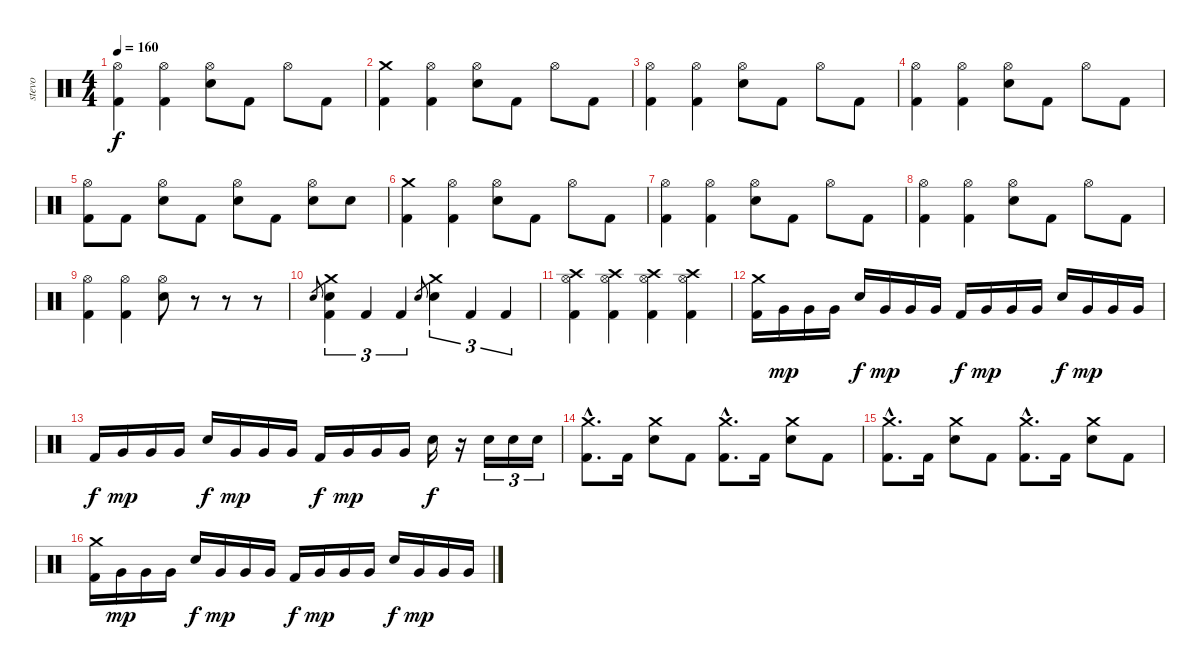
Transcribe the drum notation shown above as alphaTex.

\track ("stevo" "stevo") {instrument percussion}
\staff {score}
\articulation defaults
\ts (4 4)
\tempo 160
\clef neutral
\ks c
("Hi-Hat (open)" "Kick (hit) 2").4{dy f} ("Hi-Hat (open)" "Kick (hit) 2").4 ("Electric Snare (hit)" "Hi-Hat (open)").8 "Kick (hit) 2".8 "Hi-Hat (open)".8 "Kick (hit) 2".8 |
("Crash medium (hit)" "Kick (hit) 2").4 ("Hi-Hat (open)" "Kick (hit) 2").4 ("Electric Snare (hit)" "Hi-Hat (open)").8 "Kick (hit) 2".8 "Hi-Hat (open)".8 "Kick (hit) 2".8 |
("Hi-Hat (open)" "Kick (hit) 2").4 ("Hi-Hat (open)" "Kick (hit) 2").4 ("Electric Snare (hit)" "Hi-Hat (open)").8 "Kick (hit) 2".8 "Hi-Hat (open)".8 "Kick (hit) 2".8 |
("Hi-Hat (open)" "Kick (hit) 2").4 ("Hi-Hat (open)" "Kick (hit) 2").4 ("Electric Snare (hit)" "Hi-Hat (open)").8 "Kick (hit) 2".8 "Hi-Hat (open)".8 "Kick (hit) 2".8 |
("Hi-Hat (open)" "Kick (hit) 2").8 "Kick (hit) 2".8 ("Hi-Hat (open)" "Electric Snare (hit)").8 "Kick (hit) 2".8 ("Hi-Hat (open)" "Electric Snare (hit)").8 "Kick (hit) 2".8 ("Hi-Hat (open)" "Electric Snare (hit)").8 "Electric Snare (hit)".8 |
("Crash medium (hit)" "Kick (hit) 2").4 ("Hi-Hat (open)" "Kick (hit) 2").4 ("Electric Snare (hit)" "Hi-Hat (open)").8 "Kick (hit) 2".8 "Hi-Hat (open)".8 "Kick (hit) 2".8 |
("Hi-Hat (open)" "Kick (hit) 2").4 ("Hi-Hat (open)" "Kick (hit) 2").4 ("Electric Snare (hit)" "Hi-Hat (open)").8 "Kick (hit) 2".8 "Hi-Hat (open)".8 "Kick (hit) 2".8 |
("Hi-Hat (open)" "Kick (hit) 2").4 ("Hi-Hat (open)" "Kick (hit) 2").4 ("Electric Snare (hit)" "Hi-Hat (open)").8 "Kick (hit) 2".8 "Hi-Hat (open)".8 "Kick (hit) 2".8 |
("Hi-Hat (open)" "Kick (hit) 2").4 ("Hi-Hat (open)" "Kick (hit) 2").4 ("Electric Snare (hit)" "Hi-Hat (open)").8 r.8 r.8 r.8 |
"Electric Snare (hit)".8{gr} ("Crash medium (hit)" "Electric Snare (hit)" "Kick (hit) 2").4{tu (3 2)} "Kick (hit) 2".4{tu (3 2)} "Kick (hit) 2".4{tu (3 2)} "Electric Snare (hit)".8{gr} ("Crash medium (hit)" "Electric Snare (hit)").4{tu (3 2)} "Kick (hit) 2".4{tu (3 2)} "Kick (hit) 2".4{tu (3 2)} |
("Crash high (hit)" "Hi-Hat (open)" "Kick (hit) 2").4 ("Crash high (hit)" "Hi-Hat (open)" "Kick (hit) 2").4 ("Crash high (hit)" "Hi-Hat (open)" "Kick (hit) 2").4 ("Crash high (hit)" "Hi-Hat (open)" "Kick (hit) 2").4 |
("Crash medium (hit)" "Kick (hit) 2").16 "Very Low Tom (hit)".16{dy mp} "Very Low Tom (hit)".16 "Very Low Tom (hit)".16 "Electric Snare (hit)".16{dy f} "Very Low Tom (hit)".16{dy mp} "Very Low Tom (hit)".16 "Very Low Tom (hit)".16 "Kick (hit) 2".16{dy f} "Very Low Tom (hit)".16{dy mp} "Very Low Tom (hit)".16 "Very Low Tom (hit)".16 "Electric Snare (hit)".16{dy f} "Very Low Tom (hit)".16{dy mp} "Very Low Tom (hit)".16 "Very Low Tom (hit)".16 |
"Kick (hit) 2".16{dy f} "Very Low Tom (hit)".16{dy mp} "Very Low Tom (hit)".16 "Very Low Tom (hit)".16 "Electric Snare (hit)".16{dy f} "Very Low Tom (hit)".16{dy mp} "Very Low Tom (hit)".16 "Very Low Tom (hit)".16 "Kick (hit) 2".16{dy f} "Very Low Tom (hit)".16{dy mp} "Very Low Tom (hit)".16 "Very Low Tom (hit)".16 "Electric Snare (hit)".16{dy f} r.16 "Electric Snare (hit)".16{tu (3 2)} "Electric Snare (hit)".16{tu (3 2)} "Electric Snare (hit)".16{tu (3 2)} |
("Crash medium (hit)"{hac} "Kick (hit) 2"{hac}).8{d} "Kick (hit) 2".16 ("Crash medium (hit)" "Electric Snare (hit)").8 "Kick (hit) 2".8 ("Crash medium (hit)"{hac} "Kick (hit) 2"{hac}).8{d} "Kick (hit) 2".16 ("Crash medium (hit)" "Electric Snare (hit)").8 "Kick (hit) 2".8 |
("Crash medium (hit)"{hac} "Kick (hit) 2"{hac}).8{d} "Kick (hit) 2".16 ("Crash medium (hit)" "Electric Snare (hit)").8 "Kick (hit) 2".8 ("Crash medium (hit)"{hac} "Kick (hit) 2"{hac}).8{d} "Kick (hit) 2".16 ("Crash medium (hit)" "Electric Snare (hit)").8 "Kick (hit) 2".8 |
("Crash medium (hit)" "Kick (hit) 2").16 "Very Low Tom (hit)".16{dy mp} "Very Low Tom (hit)".16 "Very Low Tom (hit)".16 "Electric Snare (hit)".16{dy f} "Very Low Tom (hit)".16{dy mp} "Very Low Tom (hit)".16 "Very Low Tom (hit)".16 "Kick (hit) 2".16{dy f} "Very Low Tom (hit)".16{dy mp} "Very Low Tom (hit)".16 "Very Low Tom (hit)".16 "Electric Snare (hit)".16{dy f} "Very Low Tom (hit)".16{dy mp} "Very Low Tom (hit)".16 "Very Low Tom (hit)".16
